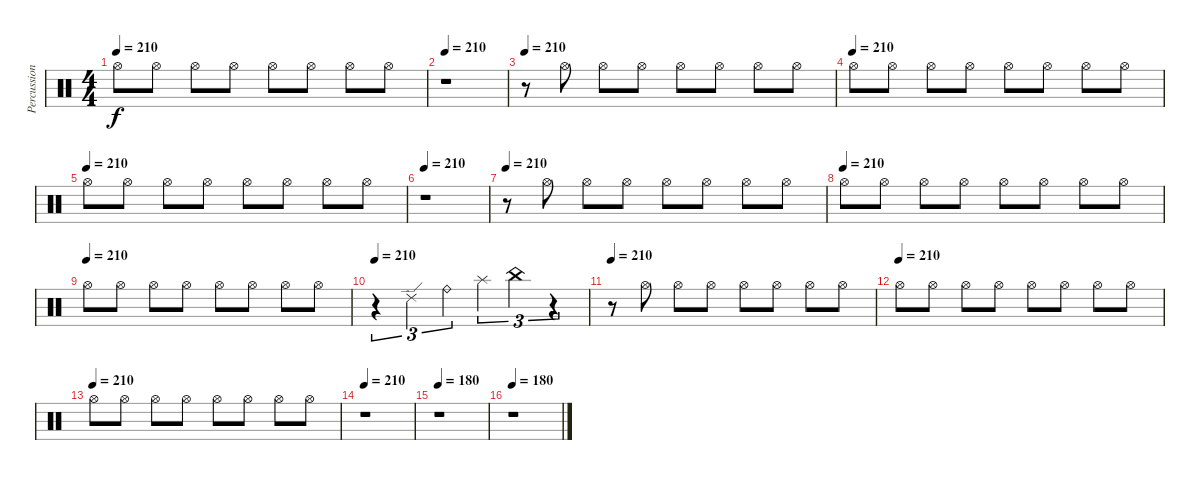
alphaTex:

\track ("Percussion" "Percussion") {instrument percussion}
\staff {score}
\articulation defaults
\ts (4 4)
\tempo 210
\clef neutral
\ks c "Hi-Hat (open)".8{dy f} "Hi-Hat (open)".8 "Hi-Hat (open)".8 "Hi-Hat (open)".8 "Hi-Hat (open)".8 "Hi-Hat (open)".8 "Hi-Hat (open)".8 "Hi-Hat (open)".8
|
\tempo 210
r.1 |
\tempo 210
r.8 "Hi-Hat (open)".8 "Hi-Hat (open)".8 "Hi-Hat (open)".8 "Hi-Hat (open)".8 "Hi-Hat (open)".8 "Hi-Hat (open)".8 "Hi-Hat (open)".8 |
\tempo (210)
"Hi-Hat (open)".8 "Hi-Hat (open)".8 "Hi-Hat (open)".8 "Hi-Hat (open)".8 "Hi-Hat (open)".8 "Hi-Hat (open)".8 "Hi-Hat (open)".8 "Hi-Hat (open)".8 |
\tempo (210)
"Hi-Hat (open)".8 "Hi-Hat (open)".8 "Hi-Hat (open)".8 "Hi-Hat (open)".8 "Hi-Hat (open)".8 "Hi-Hat (open)".8 "Hi-Hat (open)".8 "Hi-Hat (open)".8 |
\tempo 210
r.1 |
\tempo 210
r.8 "Hi-Hat (open)".8 "Hi-Hat (open)".8 "Hi-Hat (open)".8 "Hi-Hat (open)".8 "Hi-Hat (open)".8 "Hi-Hat (open)".8 "Hi-Hat (open)".8 |
\tempo (210)
"Hi-Hat (open)".8 "Hi-Hat (open)".8 "Hi-Hat (open)".8 "Hi-Hat (open)".8 "Hi-Hat (open)".8 "Hi-Hat (open)".8 "Hi-Hat (open)".8 "Hi-Hat (open)".8 |
\tempo (210)
"Hi-Hat (open)".8 "Hi-Hat (open)".8 "Hi-Hat (open)".8 "Hi-Hat (open)".8 "Hi-Hat (open)".8 "Hi-Hat (open)".8 "Hi-Hat (open)".8 "Hi-Hat (open)".8 |
\tempo 210
r.4{tu (3 2)} "Ride (edge) 2".4{tu (3 2)} "Ride (bell)".4{tu (3 2)} "Splash (hit)".4{tu (3 2)} "China (hit)".4{tu (3 2)} r.4{tu (3 2)} |
\tempo 210
r.8 "Hi-Hat (open)".8 "Hi-Hat (open)".8 "Hi-Hat (open)".8 "Hi-Hat (open)".8 "Hi-Hat (open)".8 "Hi-Hat (open)".8 "Hi-Hat (open)".8 |
\tempo (210)
"Hi-Hat (open)".8 "Hi-Hat (open)".8 "Hi-Hat (open)".8 "Hi-Hat (open)".8 "Hi-Hat (open)".8 "Hi-Hat (open)".8 "Hi-Hat (open)".8 "Hi-Hat (open)".8 |
\tempo (210)
"Hi-Hat (open)".8 "Hi-Hat (open)".8 "Hi-Hat (open)".8 "Hi-Hat (open)".8 "Hi-Hat (open)".8 "Hi-Hat (open)".8 "Hi-Hat (open)".8 "Hi-Hat (open)".8 |
\tempo 210
r.1 |
\tempo 180
r.1 |
\tempo 180
r.1
